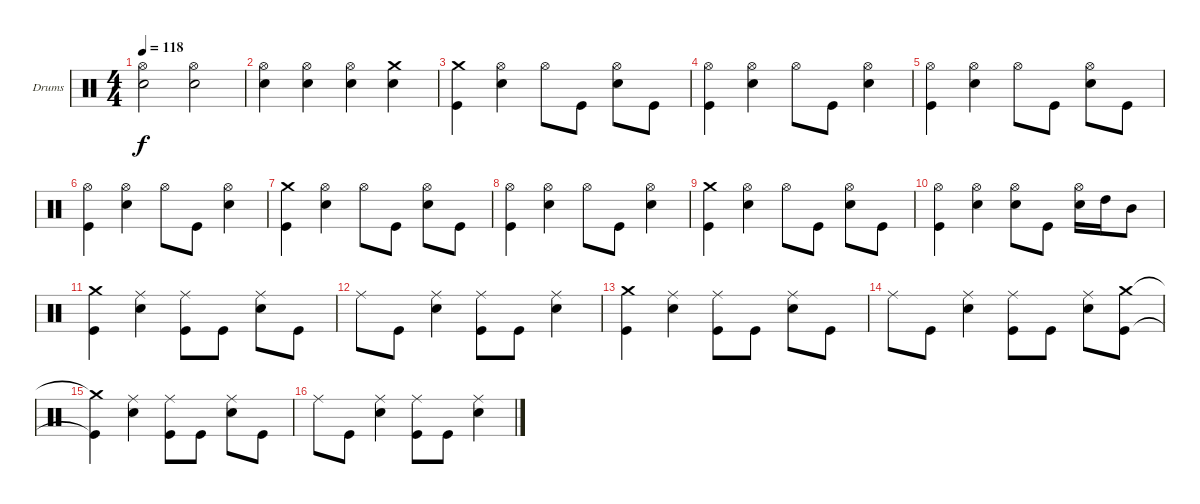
\bracketExtendMode groupsimilarinstruments
\firstSystemTrackNameOrientation horizontal
\otherSystemsTrackNameOrientation horizontal
\track ("Drumkit" "Drums") {instrument percussion}
\staff {score}
\articulation defaults
\ts (4 4)
\tempo 118
\clef neutral
\ks c
("Hi-Hat (open)" "Snare (hit) 2").2{dy f} ("Hi-Hat (open)" "Snare (hit) 2").2 |
("Hi-Hat (open)" "Snare (hit) 2").4 ("Hi-Hat (open)" "Snare (hit) 2").4 ("Hi-Hat (open)" "Snare (hit) 2").4 ("Snare (hit) 2" "Crash medium (hit)").4 |
("Crash medium (hit)" "Kick (hit)").4 ("Hi-Hat (open)" "Snare (hit) 2").4 "Hi-Hat (open)".8 "Kick (hit)".8 ("Hi-Hat (open)" "Snare (hit) 2").8 "Kick (hit)".8 |
("Hi-Hat (open)" "Kick (hit)").4 ("Hi-Hat (open)" "Snare (hit) 2").4 "Hi-Hat (open)".8 "Kick (hit)".8 ("Hi-Hat (open)" "Snare (hit) 2").4 |
("Hi-Hat (open)" "Kick (hit)").4 ("Hi-Hat (open)" "Snare (hit) 2").4 "Hi-Hat (open)".8 "Kick (hit)".8 ("Hi-Hat (open)" "Snare (hit) 2").8 "Kick (hit)".8 |
("Hi-Hat (open)" "Kick (hit)").4 ("Hi-Hat (open)" "Snare (hit) 2").4 "Hi-Hat (open)".8 "Kick (hit)".8 ("Hi-Hat (open)" "Snare (hit) 2").4 |
("Crash medium (hit)" "Kick (hit)").4 ("Hi-Hat (open)" "Snare (hit) 2").4 "Hi-Hat (open)".8 "Kick (hit)".8 ("Hi-Hat (open)" "Snare (hit) 2").8 "Kick (hit)".8 |
("Hi-Hat (open)" "Kick (hit)").4 ("Hi-Hat (open)" "Snare (hit) 2").4 "Hi-Hat (open)".8 "Kick (hit)".8 ("Hi-Hat (open)" "Snare (hit) 2").4 |
("Crash medium (hit)" "Kick (hit)").4 ("Hi-Hat (open)" "Snare (hit) 2").4 "Hi-Hat (open)".8 "Kick (hit)".8 ("Hi-Hat (open)" "Snare (hit) 2").8 "Kick (hit)".8 |
("Hi-Hat (open)" "Kick (hit)").4 ("Hi-Hat (open)" "Snare (hit) 2").4 ("Hi-Hat (open)" "Snare (hit) 2").8 "Kick (hit)".8 ("Hi-Hat (open)" "Snare (hit) 2").16 "High Tom (hit)".16 "Mid Tom (hit)".8 |
("Crash medium (hit)" "Kick (hit)").4 ("Ride (middle)" "Snare (hit) 2").4 ("Ride (middle)" "Kick (hit)").8 "Kick (hit)".8 ("Ride (middle)" "Snare (hit) 2").8 "Kick (hit)".8 |
"Ride (middle)".8 "Kick (hit)".8 ("Ride (middle)" "Snare (hit) 2").4 ("Ride (middle)" "Kick (hit)").8 "Kick (hit)".8 ("Ride (middle)" "Snare (hit) 2").4 |
("Crash medium (hit)" "Kick (hit)").4 ("Ride (middle)" "Snare (hit) 2").4 ("Ride (middle)" "Kick (hit)").8 "Kick (hit)".8 ("Ride (middle)" "Snare (hit) 2").8 "Kick (hit)".8 |
"Ride (middle)".8 "Kick (hit)".8 ("Ride (middle)" "Snare (hit) 2").4 ("Ride (middle)" "Kick (hit)").8 "Kick (hit)".8 ("Ride (middle)" "Snare (hit) 2").8 ("Crash medium (hit)" "Kick (hit)").8 |
("Crash medium (hit)"{t} "Kick (hit)"{t}).4 ("Ride (middle)" "Snare (hit) 2").4 ("Ride (middle)" "Kick (hit)").8 "Kick (hit)".8 ("Ride (middle)" "Snare (hit) 2").8 "Kick (hit)".8 |
"Ride (middle)".8 "Kick (hit)".8 ("Ride (middle)" "Snare (hit) 2").4 ("Ride (middle)" "Kick (hit)").8 "Kick (hit)".8 ("Ride (middle)" "Snare (hit) 2").4
